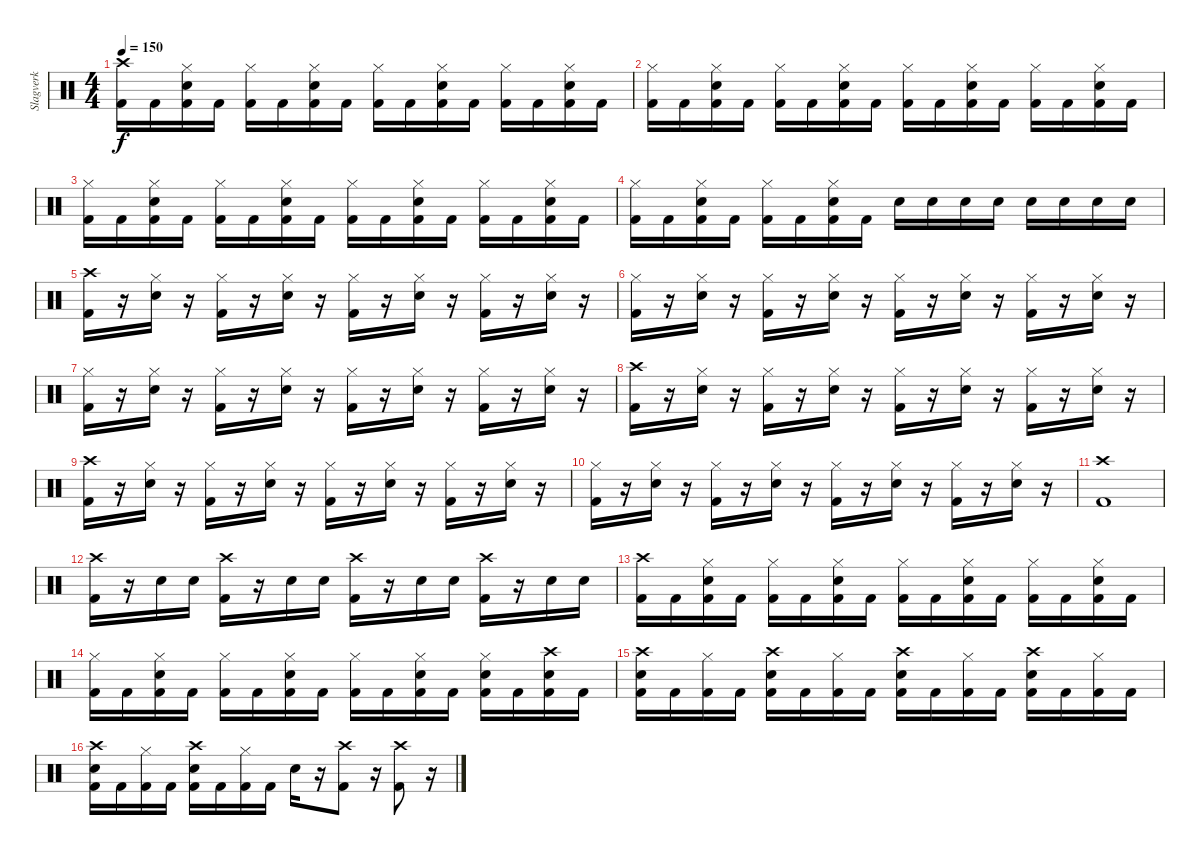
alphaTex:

\track ("Slagverk" "Slagverk") {instrument percussion}
\staff {score}
\articulation defaults
\ts (4 4)
\tempo 150
\clef neutral
\ks c
("Crash high (hit)" "Kick (hit) 2").16{dy f} "Kick (hit) 2".16 ("Hi-Hat (closed)" "Electric Snare (hit)" "Kick (hit) 2").16 "Kick (hit) 2".16 ("Hi-Hat (closed)" "Kick (hit) 2").16 "Kick (hit) 2".16 ("Hi-Hat (closed)" "Electric Snare (hit)" "Kick (hit) 2").16 "Kick (hit) 2".16 ("Hi-Hat (closed)" "Kick (hit) 2").16 "Kick (hit) 2".16 ("Hi-Hat (closed)" "Electric Snare (hit)" "Kick (hit) 2").16 "Kick (hit) 2".16 ("Hi-Hat (closed)" "Kick (hit) 2").16 "Kick (hit) 2".16 ("Hi-Hat (closed)" "Electric Snare (hit)" "Kick (hit) 2").16 "Kick (hit) 2".16 |
("Hi-Hat (closed)" "Kick (hit) 2").16 "Kick (hit) 2".16 ("Hi-Hat (closed)" "Electric Snare (hit)" "Kick (hit) 2").16 "Kick (hit) 2".16 ("Hi-Hat (closed)" "Kick (hit) 2").16 "Kick (hit) 2".16 ("Hi-Hat (closed)" "Electric Snare (hit)" "Kick (hit) 2").16 "Kick (hit) 2".16 ("Hi-Hat (closed)" "Kick (hit) 2").16 "Kick (hit) 2".16 ("Hi-Hat (closed)" "Electric Snare (hit)" "Kick (hit) 2").16 "Kick (hit) 2".16 ("Hi-Hat (closed)" "Kick (hit) 2").16 "Kick (hit) 2".16 ("Hi-Hat (closed)" "Electric Snare (hit)" "Kick (hit) 2").16 "Kick (hit) 2".16 |
("Hi-Hat (closed)" "Kick (hit) 2").16 "Kick (hit) 2".16 ("Hi-Hat (closed)" "Electric Snare (hit)" "Kick (hit) 2").16 "Kick (hit) 2".16 ("Hi-Hat (closed)" "Kick (hit) 2").16 "Kick (hit) 2".16 ("Hi-Hat (closed)" "Electric Snare (hit)" "Kick (hit) 2").16 "Kick (hit) 2".16 ("Hi-Hat (closed)" "Kick (hit) 2").16 "Kick (hit) 2".16 ("Hi-Hat (closed)" "Electric Snare (hit)" "Kick (hit) 2").16 "Kick (hit) 2".16 ("Hi-Hat (closed)" "Kick (hit) 2").16 "Kick (hit) 2".16 ("Hi-Hat (closed)" "Electric Snare (hit)" "Kick (hit) 2").16 "Kick (hit) 2".16 |
("Hi-Hat (closed)" "Kick (hit) 2").16 "Kick (hit) 2".16 ("Hi-Hat (closed)" "Electric Snare (hit)" "Kick (hit) 2").16 "Kick (hit) 2".16 ("Hi-Hat (closed)" "Kick (hit) 2").16 "Kick (hit) 2".16 ("Hi-Hat (closed)" "Electric Snare (hit)" "Kick (hit) 2").16 "Kick (hit) 2".16 "Electric Snare (hit)".16 "Electric Snare (hit)".16 "Electric Snare (hit)".16 "Electric Snare (hit)".16 "Electric Snare (hit)".16 "Electric Snare (hit)".16 "Electric Snare (hit)".16 "Electric Snare (hit)".16 |
("Crash high (hit)" "Kick (hit) 2").16 r.16 ("Hi-Hat (closed)" "Electric Snare (hit)").16 r.16 ("Hi-Hat (closed)" "Kick (hit) 2").16 r.16 ("Hi-Hat (closed)" "Electric Snare (hit)").16 r.16 ("Hi-Hat (closed)" "Kick (hit) 2").16 r.16 ("Hi-Hat (closed)" "Electric Snare (hit)").16 r.16 ("Hi-Hat (closed)" "Kick (hit) 2").16 r.16 ("Hi-Hat (closed)" "Electric Snare (hit)").16 r.16 |
("Hi-Hat (closed)" "Kick (hit) 2").16 r.16 ("Hi-Hat (closed)" "Electric Snare (hit)").16 r.16 ("Hi-Hat (closed)" "Kick (hit) 2").16 r.16 ("Hi-Hat (closed)" "Electric Snare (hit)").16 r.16 ("Hi-Hat (closed)" "Kick (hit) 2").16 r.16 ("Hi-Hat (closed)" "Electric Snare (hit)").16 r.16 ("Hi-Hat (closed)" "Kick (hit) 2").16 r.16 ("Hi-Hat (closed)" "Electric Snare (hit)").16 r.16 |
("Hi-Hat (closed)" "Kick (hit) 2").16 r.16 ("Hi-Hat (closed)" "Electric Snare (hit)").16 r.16 ("Hi-Hat (closed)" "Kick (hit) 2").16 r.16 ("Hi-Hat (closed)" "Electric Snare (hit)").16 r.16 ("Hi-Hat (closed)" "Kick (hit) 2").16 r.16 ("Hi-Hat (closed)" "Electric Snare (hit)").16 r.16 ("Hi-Hat (closed)" "Kick (hit) 2").16 r.16 ("Hi-Hat (closed)" "Electric Snare (hit)").16 r.16 |
("Crash high (hit)" "Kick (hit) 2").16 r.16 ("Hi-Hat (closed)" "Electric Snare (hit)").16 r.16 ("Hi-Hat (closed)" "Kick (hit) 2").16 r.16 ("Hi-Hat (closed)" "Electric Snare (hit)").16 r.16 ("Hi-Hat (closed)" "Kick (hit) 2").16 r.16 ("Hi-Hat (closed)" "Electric Snare (hit)").16 r.16 ("Hi-Hat (closed)" "Kick (hit) 2").16 r.16 ("Hi-Hat (closed)" "Electric Snare (hit)").16 r.16 |
("Crash high (hit)" "Kick (hit) 2").16 r.16 ("Hi-Hat (closed)" "Electric Snare (hit)").16 r.16 ("Hi-Hat (closed)" "Kick (hit) 2").16 r.16 ("Hi-Hat (closed)" "Electric Snare (hit)").16 r.16 ("Hi-Hat (closed)" "Kick (hit) 2").16 r.16 ("Hi-Hat (closed)" "Electric Snare (hit)").16 r.16 ("Hi-Hat (closed)" "Kick (hit) 2").16 r.16 ("Hi-Hat (closed)" "Electric Snare (hit)").16 r.16 |
("Hi-Hat (closed)" "Kick (hit) 2").16 r.16 ("Hi-Hat (closed)" "Electric Snare (hit)").16 r.16 ("Hi-Hat (closed)" "Kick (hit) 2").16 r.16 ("Hi-Hat (closed)" "Electric Snare (hit)").16 r.16 ("Hi-Hat (closed)" "Kick (hit) 2").16 r.16 ("Hi-Hat (closed)" "Electric Snare (hit)").16 r.16 ("Hi-Hat (closed)" "Kick (hit) 2").16 r.16 ("Hi-Hat (closed)" "Electric Snare (hit)").16 r.16 |
("Crash high (hit)" "Kick (hit) 2").1 |
("Crash high (hit)" "Kick (hit) 2").16 r.16 "Electric Snare (hit)".16 "Electric Snare (hit)".16 ("Crash high (hit)" "Kick (hit) 2").16 r.16 "Electric Snare (hit)".16 "Electric Snare (hit)".16 ("Crash high (hit)" "Kick (hit) 2").16 r.16 "Electric Snare (hit)".16 "Electric Snare (hit)".16 ("Crash high (hit)" "Kick (hit) 2").16 r.16 "Electric Snare (hit)".16 "Electric Snare (hit)".16 |
("Crash high (hit)" "Kick (hit) 2").16 "Kick (hit) 2".16 ("Hi-Hat (closed)" "Electric Snare (hit)" "Kick (hit) 2").16 "Kick (hit) 2".16 ("Hi-Hat (closed)" "Kick (hit) 2").16 "Kick (hit) 2".16 ("Hi-Hat (closed)" "Electric Snare (hit)" "Kick (hit) 2").16 "Kick (hit) 2".16 ("Hi-Hat (closed)" "Kick (hit) 2").16 "Kick (hit) 2".16 ("Hi-Hat (closed)" "Electric Snare (hit)" "Kick (hit) 2").16 "Kick (hit) 2".16 ("Hi-Hat (closed)" "Kick (hit) 2").16 "Kick (hit) 2".16 ("Hi-Hat (closed)" "Electric Snare (hit)" "Kick (hit) 2").16 "Kick (hit) 2".16 |
("Hi-Hat (closed)" "Kick (hit) 2").16 "Kick (hit) 2".16 ("Hi-Hat (closed)" "Electric Snare (hit)" "Kick (hit) 2").16 "Kick (hit) 2".16 ("Hi-Hat (closed)" "Kick (hit) 2").16 "Kick (hit) 2".16 ("Hi-Hat (closed)" "Electric Snare (hit)" "Kick (hit) 2").16 "Kick (hit) 2".16 ("Hi-Hat (closed)" "Kick (hit) 2").16 "Kick (hit) 2".16 ("Hi-Hat (closed)" "Electric Snare (hit)" "Kick (hit) 2").16 "Kick (hit) 2".16 ("Hi-Hat (closed)" "Electric Snare (hit)" "Kick (hit) 2").16 "Kick (hit) 2".16 ("Crash high (hit)" "Electric Snare (hit)" "Kick (hit) 2").16 "Kick (hit) 2".16 |
("Crash high (hit)" "Electric Snare (hit)" "Kick (hit) 2").16 "Kick (hit) 2".16 ("Hi-Hat (closed)" "Kick (hit) 2").16 "Kick (hit) 2".16 ("Crash high (hit)" "Electric Snare (hit)" "Kick (hit) 2").16 "Kick (hit) 2".16 ("Hi-Hat (closed)" "Kick (hit) 2").16 "Kick (hit) 2".16 ("Crash high (hit)" "Electric Snare (hit)" "Kick (hit) 2").16 "Kick (hit) 2".16 ("Hi-Hat (closed)" "Kick (hit) 2").16 "Kick (hit) 2".16 ("Crash high (hit)" "Electric Snare (hit)" "Kick (hit) 2").16 "Kick (hit) 2".16 ("Hi-Hat (closed)" "Kick (hit) 2").16 "Kick (hit) 2".16 |
("Crash high (hit)" "Electric Snare (hit)" "Kick (hit) 2").16 "Kick (hit) 2".16 ("Hi-Hat (closed)" "Kick (hit) 2").16 "Kick (hit) 2".16 ("Crash high (hit)" "Electric Snare (hit)" "Kick (hit) 2").16 "Kick (hit) 2".16 ("Hi-Hat (closed)" "Kick (hit) 2").16 "Kick (hit) 2".16 "Electric Snare (hit)".16 r.16 ("Crash high (hit)" "Kick (hit) 2").8 r.16 ("Crash high (hit)" "Kick (hit) 2").8 r.16
